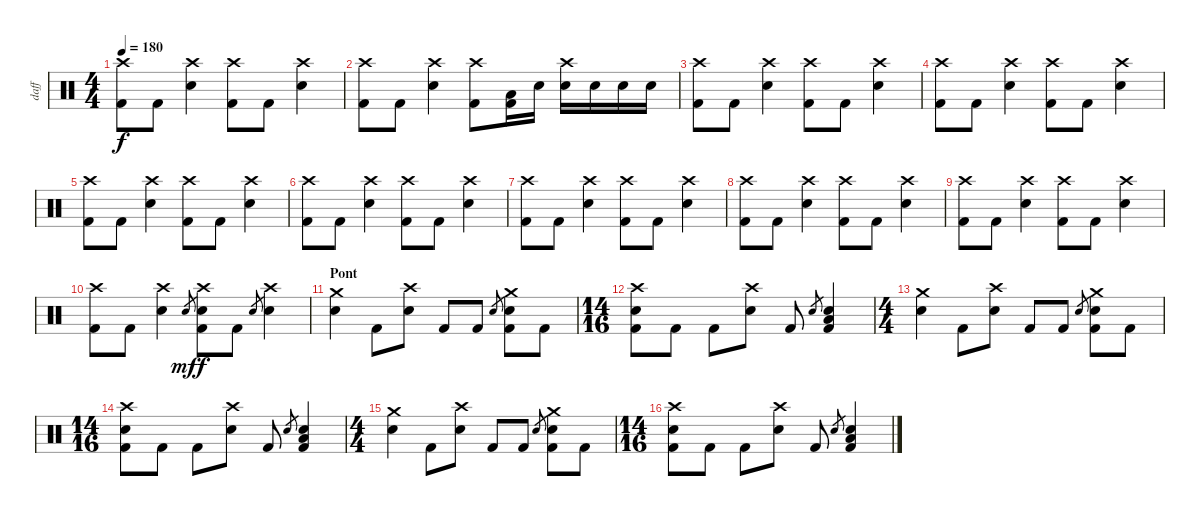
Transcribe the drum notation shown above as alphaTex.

\track ("daff" "daff") {instrument percussion}
\staff {score}
\articulation defaults
\ts (4 4)
\tempo 180
\clef neutral
\ks c
("Crash high (hit)" "Kick (hit) 2").8{dy f} "Kick (hit) 2".8 ("Crash high (hit)" "Electric Snare (hit)").4 ("Crash high (hit)" "Kick (hit) 2").8 "Kick (hit) 2".8 ("Crash high (hit)" "Electric Snare (hit)").4 |
("Crash high (hit)" "Kick (hit) 2").8 "Kick (hit) 2".8 ("Crash high (hit)" "Electric Snare (hit)").4 ("Crash high (hit)" "Kick (hit) 2").8 ("Low Floor Tom (hit)" "Kick (hit) 2").16 "Electric Snare (hit)".16 ("Crash high (hit)" "Electric Snare (hit)").16 "Electric Snare (hit)".16 "Electric Snare (hit)".16 "Electric Snare (hit)".16 |
("Crash high (hit)" "Kick (hit) 2").8 "Kick (hit) 2".8 ("Crash high (hit)" "Electric Snare (hit)").4 ("Crash high (hit)" "Kick (hit) 2").8 "Kick (hit) 2".8 ("Crash high (hit)" "Electric Snare (hit)").4 |
("Crash high (hit)" "Kick (hit) 2").8 "Kick (hit) 2".8 ("Crash high (hit)" "Electric Snare (hit)").4 ("Crash high (hit)" "Kick (hit) 2").8 "Kick (hit) 2".8 ("Crash high (hit)" "Electric Snare (hit)").4 |
("Crash high (hit)" "Kick (hit) 2").8 "Kick (hit) 2".8 ("Crash high (hit)" "Electric Snare (hit)").4 ("Crash high (hit)" "Kick (hit) 2").8 "Kick (hit) 2".8 ("Crash high (hit)" "Electric Snare (hit)").4 |
("Crash high (hit)" "Kick (hit) 2").8 "Kick (hit) 2".8 ("Crash high (hit)" "Electric Snare (hit)").4 ("Crash high (hit)" "Kick (hit) 2").8 "Kick (hit) 2".8 ("Crash high (hit)" "Electric Snare (hit)").4 |
("Crash high (hit)" "Kick (hit) 2").8 "Kick (hit) 2".8 ("Crash high (hit)" "Electric Snare (hit)").4 ("Crash high (hit)" "Kick (hit) 2").8 "Kick (hit) 2".8 ("Crash high (hit)" "Electric Snare (hit)").4 |
("Crash high (hit)" "Kick (hit) 2").8 "Kick (hit) 2".8 ("Crash high (hit)" "Electric Snare (hit)").4 ("Crash high (hit)" "Kick (hit) 2").8 "Kick (hit) 2".8 ("Crash high (hit)" "Electric Snare (hit)").4 |
("Crash high (hit)" "Kick (hit) 2").8 "Kick (hit) 2".8 ("Crash high (hit)" "Electric Snare (hit)").4 ("Crash high (hit)" "Kick (hit) 2").8 "Kick (hit) 2".8 ("Crash high (hit)" "Electric Snare (hit)").4 |
("Crash high (hit)" "Kick (hit) 2").8 "Kick (hit) 2".8 ("Crash high (hit)" "Electric Snare (hit)").4 "Electric Snare (hit)".8{gr dy mf} ("Crash high (hit)" "Electric Snare (hit)" "Kick (hit) 2").8{dy f} "Kick (hit) 2".8 "Electric Snare (hit)".8{gr} ("Crash high (hit)" "Electric Snare (hit)").4 |
\section ("" "Pont")
("Electric Snare (hit)" "Crash medium (hit)").4 "Kick (hit) 2".8 ("Crash high (hit)" "Electric Snare (hit)").8 "Kick (hit) 2".8 "Kick (hit) 2".8 "Electric Snare (hit)".8{gr} ("Crash medium (hit)" "Electric Snare (hit)" "Kick (hit) 2").8 "Kick (hit) 2".8 |
\ts (14 16)
("Crash high (hit)" "Electric Snare (hit)" "Kick (hit) 2").8 "Kick (hit) 2".8 "Kick (hit) 2".8 ("Crash high (hit)" "Electric Snare (hit)").8 "Kick (hit) 2".8 "Electric Snare (hit)".8{gr} ("Electric Snare (hit)" "Low Tom (hit)" "Kick (hit) 2").4 |
\ts (4 4)
("Electric Snare (hit)" "Crash medium (hit)").4 "Kick (hit) 2".8 ("Crash high (hit)" "Electric Snare (hit)").8 "Kick (hit) 2".8 "Kick (hit) 2".8 "Electric Snare (hit)".8{gr} ("Crash medium (hit)" "Electric Snare (hit)" "Kick (hit) 2").8 "Kick (hit) 2".8 |
\ts (14 16)
("Crash high (hit)" "Electric Snare (hit)" "Kick (hit) 2").8 "Kick (hit) 2".8 "Kick (hit) 2".8 ("Crash high (hit)" "Electric Snare (hit)").8 "Kick (hit) 2".8 "Electric Snare (hit)".8{gr} ("Electric Snare (hit)" "Low Tom (hit)" "Kick (hit) 2").4 |
\ts (4 4)
("Electric Snare (hit)" "Crash medium (hit)").4 "Kick (hit) 2".8 ("Crash high (hit)" "Electric Snare (hit)").8 "Kick (hit) 2".8 "Kick (hit) 2".8 "Electric Snare (hit)".8{gr} ("Crash medium (hit)" "Electric Snare (hit)" "Kick (hit) 2").8 "Kick (hit) 2".8 |
\ts (14 16)
("Crash high (hit)" "Electric Snare (hit)" "Kick (hit) 2").8 "Kick (hit) 2".8 "Kick (hit) 2".8 ("Crash high (hit)" "Electric Snare (hit)").8 "Kick (hit) 2".8 "Electric Snare (hit)".8{gr} ("Electric Snare (hit)" "Low Tom (hit)" "Kick (hit) 2").4
